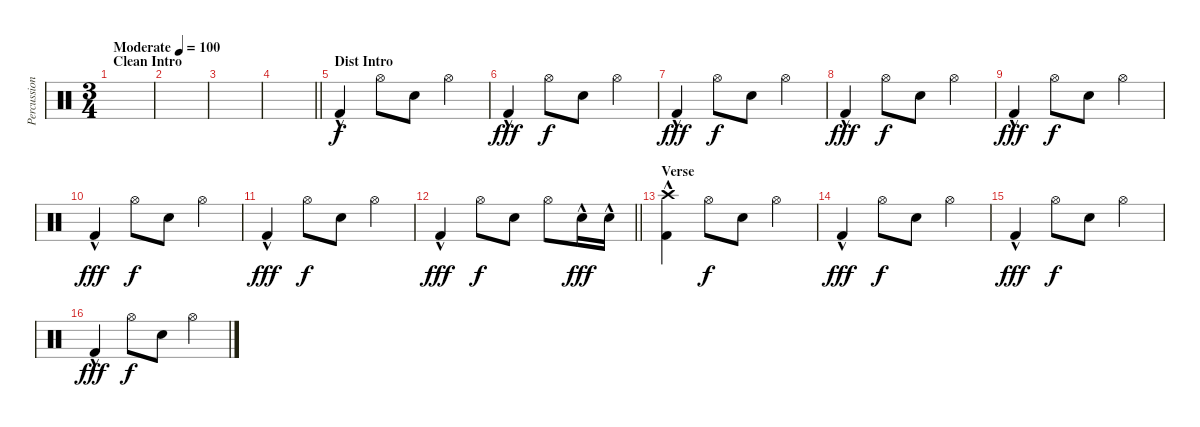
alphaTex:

\track ("Percussion" "Percussion") {instrument percussion}
\staff {score}
\articulation defaults
\ts (3 4)
\section ("" "Clean Intro")
\tempo (100 "Moderate")
\clef neutral
\ks c
|
|
|
\barLineRight lightlight
|
\section ("" "Dist Intro")
"Kick (hit) 2"{hac}.4 "Hi-Hat (open)".8{dy f} "Snare (hit) 2".8 "Hi-Hat (open)".4 |
"Kick (hit) 2"{hac}.4{dy fff} "Hi-Hat (open)".8{dy f} "Snare (hit) 2".8 "Hi-Hat (open)".4 |
"Kick (hit) 2"{hac}.4{dy fff} "Hi-Hat (open)".8{dy f} "Snare (hit) 2".8 "Hi-Hat (open)".4 |
"Kick (hit) 2"{hac}.4{dy fff} "Hi-Hat (open)".8{dy f} "Snare (hit) 2".8 "Hi-Hat (open)".4 |
"Kick (hit) 2"{hac}.4{dy fff} "Hi-Hat (open)".8{dy f} "Snare (hit) 2".8 "Hi-Hat (open)".4 |
"Kick (hit) 2"{hac}.4{dy fff} "Hi-Hat (open)".8{dy f} "Snare (hit) 2".8 "Hi-Hat (open)".4 |
"Kick (hit) 2"{hac}.4{dy fff} "Hi-Hat (open)".8{dy f} "Snare (hit) 2".8 "Hi-Hat (open)".4 |
\barLineRight lightlight "Kick (hit) 2"{hac}.4{dy fff} "Hi-Hat (open)".8{dy f} "Snare (hit) 2".8 "Hi-Hat (open)".8 "Snare (hit) 2"{hac}.16{dy fff} "Snare (hit) 2"{hac}.16
|
\section ("" "Verse")
("Crash high (hit)" "Kick (hit) 2"{hac}).4 "Hi-Hat (open)".8{dy f} "Snare (hit) 2".8 "Hi-Hat (open)".4 |
"Kick (hit) 2"{hac}.4{dy fff} "Hi-Hat (open)".8{dy f} "Snare (hit) 2".8 "Hi-Hat (open)".4 |
"Kick (hit) 2"{hac}.4{dy fff} "Hi-Hat (open)".8{dy f} "Snare (hit) 2".8 "Hi-Hat (open)".4 |
"Kick (hit) 2"{hac}.4{dy fff} "Hi-Hat (open)".8{dy f} "Snare (hit) 2".8 "Hi-Hat (open)".4
